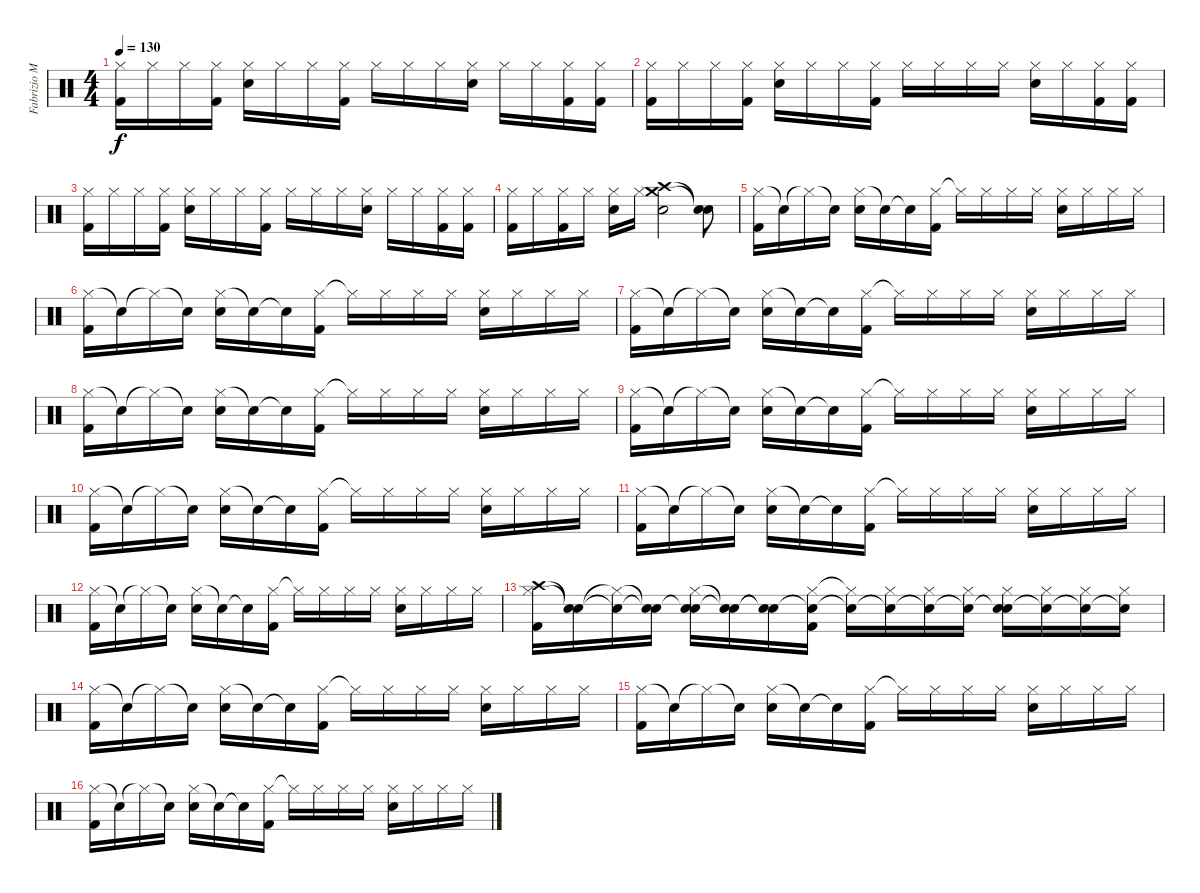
\track ("Fabrizio Moretti" "Fabrizio M") {instrument percussion bank 127}
\staff {score}
\articulation defaults
\ts (4 4)
\tempo 130
\clef neutral
\ks c
("Hi-Hat (closed)" "Kick (hit) 2").16{dy f} "Hi-Hat (closed)".16 "Hi-Hat (closed)".16 ("Hi-Hat (closed)" "Kick (hit) 2").16 ("Hi-Hat (closed)" "Electric Snare (hit)").16 "Hi-Hat (closed)".16 "Hi-Hat (closed)".16 ("Hi-Hat (closed)" "Kick (hit) 2").16 "Hi-Hat (closed)".16 "Hi-Hat (closed)".16 "Hi-Hat (closed)".16 ("Hi-Hat (closed)" "Electric Snare (hit)").16 "Hi-Hat (closed)".16 "Hi-Hat (closed)".16 ("Hi-Hat (closed)" "Kick (hit) 2").16 ("Hi-Hat (closed)" "Kick (hit) 2").16 |
("Hi-Hat (closed)" "Kick (hit) 2").16 "Hi-Hat (closed)".16 "Hi-Hat (closed)".16 ("Hi-Hat (closed)" "Kick (hit) 2").16 ("Hi-Hat (closed)" "Electric Snare (hit)").16 "Hi-Hat (closed)".16 "Hi-Hat (closed)".16 ("Hi-Hat (closed)" "Kick (hit) 2").16 "Hi-Hat (closed)".16 "Hi-Hat (closed)".16 "Hi-Hat (closed)".16 "Hi-Hat (closed)".16 ("Hi-Hat (closed)" "Electric Snare (hit)").16 "Hi-Hat (closed)".16 ("Hi-Hat (closed)" "Kick (hit) 2").16 ("Hi-Hat (closed)" "Kick (hit) 2").16 |
("Hi-Hat (closed)" "Kick (hit) 2").16 "Hi-Hat (closed)".16 "Hi-Hat (closed)".16 ("Hi-Hat (closed)" "Kick (hit) 2").16 ("Hi-Hat (closed)" "Electric Snare (hit)").16 "Hi-Hat (closed)".16 "Hi-Hat (closed)".16 ("Hi-Hat (closed)" "Kick (hit) 2").16 "Hi-Hat (closed)".16 "Hi-Hat (closed)".16 "Hi-Hat (closed)".16 ("Hi-Hat (closed)" "Electric Snare (hit)").16 "Hi-Hat (closed)".16 "Hi-Hat (closed)".16 ("Hi-Hat (closed)" "Kick (hit) 2").16 ("Hi-Hat (closed)" "Kick (hit) 2").16 |
("Hi-Hat (closed)" "Kick (hit) 2").16 "Hi-Hat (closed)".16 ("Hi-Hat (closed)" "Kick (hit) 2").16 "Hi-Hat (closed)".16 ("Hi-Hat (closed)" "Electric Snare (hit)").16 "Hi-Hat (closed)".16 ("Crash medium (hit)" "Crash high (hit)" "Electric Snare (hit)").2 ("Snare (hit)"{t} "Snare (hit)"{t}).8 |
("Hi-Hat (closed)" "Kick (hit) 2").16 "Snare (hit)"{t}.16 "Hi-Hat (closed)"{t}.16 "Snare (hit)"{t}.16 ("Hi-Hat (closed)" "Electric Snare (hit)").16 "Snare (hit)"{t}.16 "Snare (hit)"{t}.16 ("Hi-Hat (closed)" "Kick (hit) 2").16 "Hi-Hat (closed)"{t}.16 "Hi-Hat (closed)".16 "Hi-Hat (closed)".16 "Hi-Hat (closed)".16 ("Hi-Hat (closed)" "Electric Snare (hit)").16 "Hi-Hat (closed)".16 "Hi-Hat (closed)".16 "Hi-Hat (closed)".16 |
("Hi-Hat (closed)" "Kick (hit) 2").16 "Snare (hit)"{t}.16 "Hi-Hat (closed)"{t}.16 "Snare (hit)"{t}.16 ("Hi-Hat (closed)" "Electric Snare (hit)").16 "Snare (hit)"{t}.16 "Snare (hit)"{t}.16 ("Hi-Hat (closed)" "Kick (hit) 2").16 "Hi-Hat (closed)"{t}.16 "Hi-Hat (closed)".16 "Hi-Hat (closed)".16 "Hi-Hat (closed)".16 ("Hi-Hat (closed)" "Electric Snare (hit)").16 "Hi-Hat (closed)".16 "Hi-Hat (closed)".16 "Hi-Hat (closed)".16 |
("Hi-Hat (closed)" "Kick (hit) 2").16 "Snare (hit)"{t}.16 "Hi-Hat (closed)"{t}.16 "Snare (hit)"{t}.16 ("Hi-Hat (closed)" "Electric Snare (hit)").16 "Snare (hit)"{t}.16 "Snare (hit)"{t}.16 ("Hi-Hat (closed)" "Kick (hit) 2").16 "Hi-Hat (closed)"{t}.16 "Hi-Hat (closed)".16 "Hi-Hat (closed)".16 "Hi-Hat (closed)".16 ("Hi-Hat (closed)" "Electric Snare (hit)").16 "Hi-Hat (closed)".16 "Hi-Hat (closed)".16 "Hi-Hat (closed)".16 |
("Hi-Hat (closed)" "Kick (hit) 2").16 "Snare (hit)"{t}.16 "Hi-Hat (closed)"{t}.16 "Snare (hit)"{t}.16 ("Hi-Hat (closed)" "Electric Snare (hit)").16 "Snare (hit)"{t}.16 "Snare (hit)"{t}.16 ("Hi-Hat (closed)" "Kick (hit) 2").16 "Hi-Hat (closed)"{t}.16 "Hi-Hat (closed)".16 "Hi-Hat (closed)".16 "Hi-Hat (closed)".16 ("Hi-Hat (closed)" "Electric Snare (hit)").16 "Hi-Hat (closed)".16 "Hi-Hat (closed)".16 "Hi-Hat (closed)".16 |
("Hi-Hat (closed)" "Kick (hit) 2").16 "Snare (hit)"{t}.16 "Hi-Hat (closed)"{t}.16 "Snare (hit)"{t}.16 ("Hi-Hat (closed)" "Electric Snare (hit)").16 "Snare (hit)"{t}.16 "Snare (hit)"{t}.16 ("Hi-Hat (closed)" "Kick (hit) 2").16 "Hi-Hat (closed)"{t}.16 "Hi-Hat (closed)".16 "Hi-Hat (closed)".16 "Hi-Hat (closed)".16 ("Hi-Hat (closed)" "Electric Snare (hit)").16 "Hi-Hat (closed)".16 "Hi-Hat (closed)".16 "Hi-Hat (closed)".16 |
("Hi-Hat (closed)" "Kick (hit) 2").16 "Snare (hit)"{t}.16 "Hi-Hat (closed)"{t}.16 "Snare (hit)"{t}.16 ("Hi-Hat (closed)" "Electric Snare (hit)").16 "Snare (hit)"{t}.16 "Snare (hit)"{t}.16 ("Hi-Hat (closed)" "Kick (hit) 2").16 "Hi-Hat (closed)"{t}.16 "Hi-Hat (closed)".16 "Hi-Hat (closed)".16 "Hi-Hat (closed)".16 ("Hi-Hat (closed)" "Electric Snare (hit)").16 "Hi-Hat (closed)".16 "Hi-Hat (closed)".16 "Hi-Hat (closed)".16 |
("Hi-Hat (closed)" "Kick (hit) 2").16 "Snare (hit)"{t}.16 "Hi-Hat (closed)"{t}.16 "Snare (hit)"{t}.16 ("Hi-Hat (closed)" "Electric Snare (hit)").16 "Snare (hit)"{t}.16 "Snare (hit)"{t}.16 ("Hi-Hat (closed)" "Kick (hit) 2").16 "Hi-Hat (closed)"{t}.16 "Hi-Hat (closed)".16 "Hi-Hat (closed)".16 "Hi-Hat (closed)".16 ("Hi-Hat (closed)" "Electric Snare (hit)").16 "Hi-Hat (closed)".16 "Hi-Hat (closed)".16 "Hi-Hat (closed)".16 |
("Hi-Hat (closed)" "Kick (hit) 2").16 "Snare (hit)"{t}.16 "Hi-Hat (closed)"{t}.16 "Snare (hit)"{t}.16 ("Hi-Hat (closed)" "Electric Snare (hit)").16 "Snare (hit)"{t}.16 "Snare (hit)"{t}.16 ("Hi-Hat (closed)" "Kick (hit) 2").16 "Hi-Hat (closed)"{t}.16 "Hi-Hat (closed)".16 "Hi-Hat (closed)".16 "Hi-Hat (closed)".16 ("Hi-Hat (closed)" "Electric Snare (hit)").16 "Hi-Hat (closed)".16 "Hi-Hat (closed)".16 "Hi-Hat (closed)".16 |
("Crash high (hit)" "Hi-Hat (closed)" "Kick (hit) 2").16 ("Snare (hit)"{t} "Snare (hit)"{t}).16 ("Snare (hit)"{t} "Hi-Hat (closed)"{t}).16 ("Snare (hit)"{t} "Snare (hit)"{t}).16 ("Snare (hit)"{t} "Hi-Hat (closed)" "Electric Snare (hit)").16 ("Snare (hit)"{t} "Snare (hit)"{t}).16 ("Snare (hit)"{t} "Snare (hit)"{t}).16 ("Snare (hit)"{t} "Hi-Hat (closed)" "Kick (hit) 2").16 ("Snare (hit)"{t} "Hi-Hat (closed)"{t}).16 ("Snare (hit)"{t} "Hi-Hat (closed)").16 ("Snare (hit)"{t} "Hi-Hat (closed)").16 ("Snare (hit)"{t} "Hi-Hat (closed)").16 ("Snare (hit)"{t} "Hi-Hat (closed)" "Electric Snare (hit)").16 ("Snare (hit)"{t} "Hi-Hat (closed)").16 ("Snare (hit)"{t} "Hi-Hat (closed)").16 ("Snare (hit)"{t} "Hi-Hat (closed)").16 |
("Hi-Hat (closed)" "Kick (hit) 2").16 "Snare (hit)"{t}.16 "Hi-Hat (closed)"{t}.16 "Snare (hit)"{t}.16 ("Hi-Hat (closed)" "Electric Snare (hit)").16 "Snare (hit)"{t}.16 "Snare (hit)"{t}.16 ("Hi-Hat (closed)" "Kick (hit) 2").16 "Hi-Hat (closed)"{t}.16 "Hi-Hat (closed)".16 "Hi-Hat (closed)".16 "Hi-Hat (closed)".16 ("Hi-Hat (closed)" "Electric Snare (hit)").16 "Hi-Hat (closed)".16 "Hi-Hat (closed)".16 "Hi-Hat (closed)".16 |
("Hi-Hat (closed)" "Kick (hit) 2").16 "Snare (hit)"{t}.16 "Hi-Hat (closed)"{t}.16 "Snare (hit)"{t}.16 ("Hi-Hat (closed)" "Electric Snare (hit)").16 "Snare (hit)"{t}.16 "Snare (hit)"{t}.16 ("Hi-Hat (closed)" "Kick (hit) 2").16 "Hi-Hat (closed)"{t}.16 "Hi-Hat (closed)".16 "Hi-Hat (closed)".16 "Hi-Hat (closed)".16 ("Hi-Hat (closed)" "Electric Snare (hit)").16 "Hi-Hat (closed)".16 "Hi-Hat (closed)".16 "Hi-Hat (closed)".16 |
("Hi-Hat (closed)" "Kick (hit) 2").16 "Snare (hit)"{t}.16 "Hi-Hat (closed)"{t}.16 "Snare (hit)"{t}.16 ("Hi-Hat (closed)" "Electric Snare (hit)").16 "Snare (hit)"{t}.16 "Snare (hit)"{t}.16 ("Hi-Hat (closed)" "Kick (hit) 2").16 "Hi-Hat (closed)"{t}.16 "Hi-Hat (closed)".16 "Hi-Hat (closed)".16 "Hi-Hat (closed)".16 ("Hi-Hat (closed)" "Electric Snare (hit)").16 "Hi-Hat (closed)".16 "Hi-Hat (closed)".16 "Hi-Hat (closed)".16
